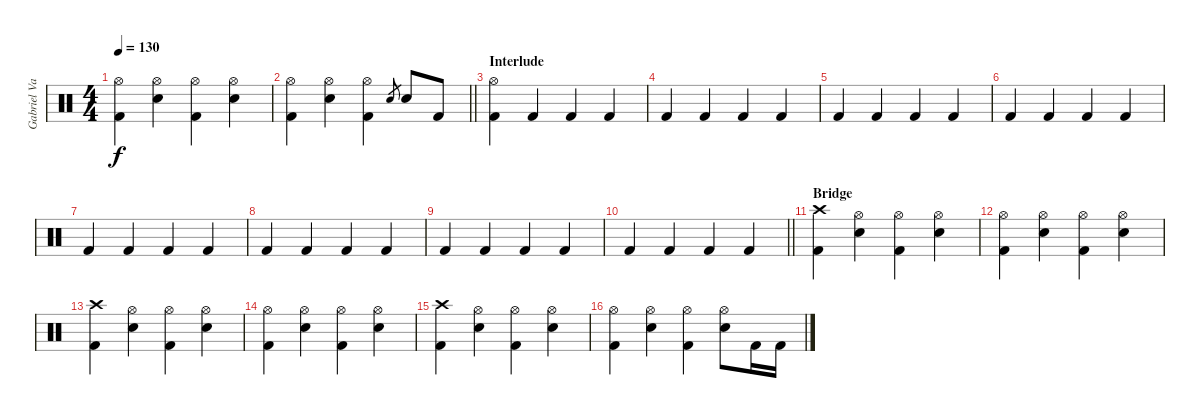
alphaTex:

\track ("Gabriel Valerio" "Gabriel Va") {instrument percussion}
\staff {score}
\articulation defaults
\ts (4 4)
\tempo 130
\clef neutral
\ks c
("Hi-Hat (open)" "Kick (hit) 2").4{dy f} ("Hi-Hat (open)" "Snare (hit) 2").4 ("Hi-Hat (open)" "Kick (hit) 2").4 ("Hi-Hat (open)" "Snare (hit) 2").4 |
\barLineRight lightlight
("Hi-Hat (open)" "Kick (hit) 2").4 ("Hi-Hat (open)" "Snare (hit) 2").4 ("Hi-Hat (open)" "Kick (hit) 2").4 "Snare (hit) 2".8{gr} "Snare (hit) 2".8 "Kick (hit) 2".8 |
\section ("" "Interlude")
("Hi-Hat (open)" "Kick (hit) 2").4 "Kick (hit) 2".4 "Kick (hit) 2".4 "Kick (hit) 2".4 |
"Kick (hit) 2".4 "Kick (hit) 2".4 "Kick (hit) 2".4 "Kick (hit) 2".4 |
"Kick (hit) 2".4 "Kick (hit) 2".4 "Kick (hit) 2".4 "Kick (hit) 2".4 |
"Kick (hit) 2".4 "Kick (hit) 2".4 "Kick (hit) 2".4 "Kick (hit) 2".4 |
"Kick (hit) 2".4 "Kick (hit) 2".4 "Kick (hit) 2".4 "Kick (hit) 2".4 |
"Kick (hit) 2".4 "Kick (hit) 2".4 "Kick (hit) 2".4 "Kick (hit) 2".4 |
"Kick (hit) 2".4 "Kick (hit) 2".4 "Kick (hit) 2".4 "Kick (hit) 2".4 |
\barLineRight lightlight "Kick (hit) 2".4 "Kick (hit) 2".4 "Kick (hit) 2".4 "Kick (hit) 2".4
|
\section ("" "Bridge")
("Crash high (hit)" "Kick (hit) 2").4 ("Hi-Hat (open)" "Snare (hit) 2").4 ("Hi-Hat (open)" "Kick (hit) 2").4 ("Hi-Hat (open)" "Snare (hit) 2").4 |
("Hi-Hat (open)" "Kick (hit) 2").4 ("Hi-Hat (open)" "Snare (hit) 2").4 ("Hi-Hat (open)" "Kick (hit) 2").4 ("Hi-Hat (open)" "Snare (hit) 2").4 |
("Crash high (hit)" "Kick (hit) 2").4 ("Hi-Hat (open)" "Snare (hit) 2").4 ("Hi-Hat (open)" "Kick (hit) 2").4 ("Hi-Hat (open)" "Snare (hit) 2").4 |
("Hi-Hat (open)" "Kick (hit) 2").4 ("Hi-Hat (open)" "Snare (hit) 2").4 ("Hi-Hat (open)" "Kick (hit) 2").4 ("Hi-Hat (open)" "Snare (hit) 2").4 |
("Crash high (hit)" "Kick (hit) 2").4 ("Hi-Hat (open)" "Snare (hit) 2").4 ("Hi-Hat (open)" "Kick (hit) 2").4 ("Hi-Hat (open)" "Snare (hit) 2").4 |
("Hi-Hat (open)" "Kick (hit) 2").4 ("Hi-Hat (open)" "Snare (hit) 2").4 ("Hi-Hat (open)" "Kick (hit) 2").4 ("Hi-Hat (open)" "Snare (hit) 2").8 "Kick (hit) 2".16 "Kick (hit) 2".16
